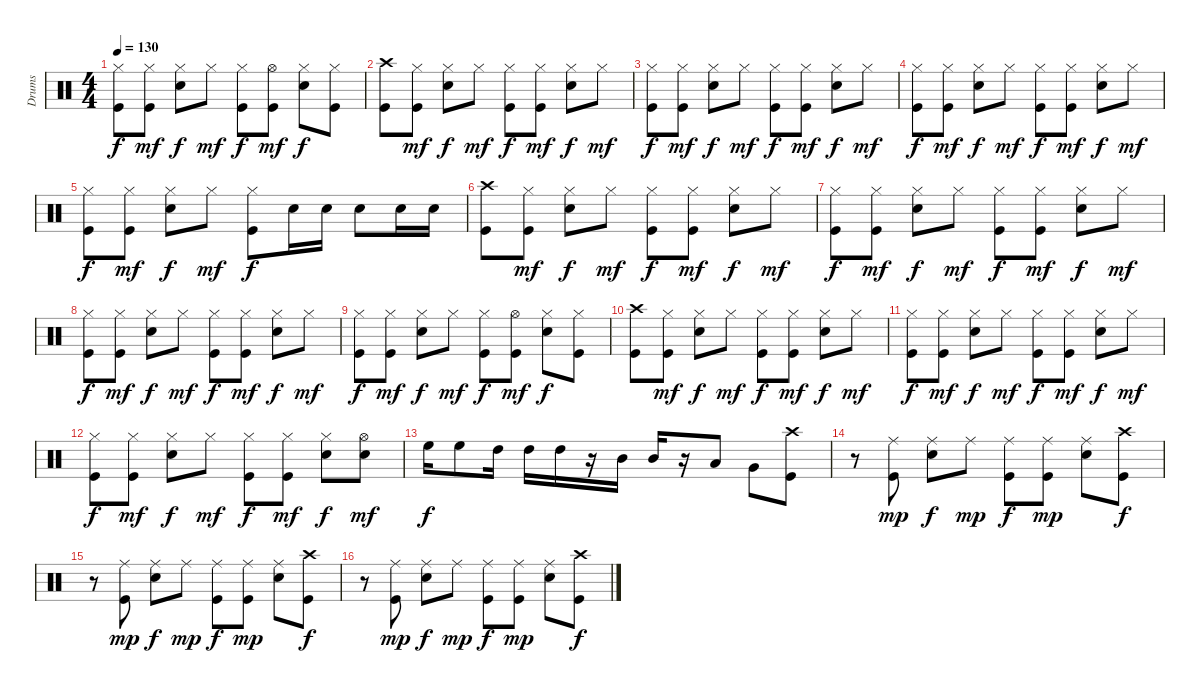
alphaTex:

\track ("Drums" "Drums") {instrument percussion}
\staff {score}
\articulation defaults
\ts (4 4)
\tempo 130
\clef neutral
\ks c
("Hi-Hat (closed)" "Kick (hit)").8{dy f} ("Hi-Hat (closed)" "Kick (hit)").8{dy mf} ("Hi-Hat (closed)" "Snare (hit) 2").8{dy f} "Hi-Hat (closed)".8{dy mf} ("Hi-Hat (closed)" "Kick (hit)").8{dy f} ("Hi-Hat (open)" "Kick (hit)").8{dy mf} ("Hi-Hat (closed)" "Snare (hit) 2").8{dy f} ("Hi-Hat (closed)" "Kick (hit)").8 |
("Kick (hit)" "Crash high (hit)").8 ("Hi-Hat (closed)" "Kick (hit)").8{dy mf} ("Hi-Hat (closed)" "Snare (hit) 2").8{dy f} "Hi-Hat (closed)".8{dy mf} ("Hi-Hat (closed)" "Kick (hit)").8{dy f} ("Hi-Hat (closed)" "Kick (hit)").8{dy mf} ("Hi-Hat (closed)" "Snare (hit) 2").8{dy f} "Hi-Hat (closed)".8{dy mf} |
("Hi-Hat (closed)" "Kick (hit)").8{dy f} ("Hi-Hat (closed)" "Kick (hit)").8{dy mf} ("Hi-Hat (closed)" "Snare (hit) 2").8{dy f} "Hi-Hat (closed)".8{dy mf} ("Hi-Hat (closed)" "Kick (hit)").8{dy f} ("Hi-Hat (closed)" "Kick (hit)").8{dy mf} ("Hi-Hat (closed)" "Snare (hit) 2").8{dy f} "Hi-Hat (closed)".8{dy mf} |
("Hi-Hat (closed)" "Kick (hit)").8{dy f} ("Hi-Hat (closed)" "Kick (hit)").8{dy mf} ("Hi-Hat (closed)" "Snare (hit) 2").8{dy f} "Hi-Hat (closed)".8{dy mf} ("Hi-Hat (closed)" "Kick (hit)").8{dy f} ("Hi-Hat (closed)" "Kick (hit)").8{dy mf} ("Hi-Hat (closed)" "Snare (hit) 2").8{dy f} "Hi-Hat (closed)".8{dy mf} |
("Hi-Hat (closed)" "Kick (hit)").8{dy f} ("Hi-Hat (closed)" "Kick (hit)").8{dy mf} ("Hi-Hat (closed)" "Snare (hit) 2").8{dy f} "Hi-Hat (closed)".8{dy mf} ("Hi-Hat (closed)" "Kick (hit)").8{dy f} "Snare (hit) 2".16 "Snare (hit) 2".16 "Snare (hit) 2".8 "Snare (hit) 2".16 "Snare (hit) 2".16 |
("Kick (hit)" "Crash high (hit)").8 ("Hi-Hat (closed)" "Kick (hit)").8{dy mf} ("Hi-Hat (closed)" "Snare (hit) 2").8{dy f} "Hi-Hat (closed)".8{dy mf} ("Hi-Hat (closed)" "Kick (hit)").8{dy f} ("Hi-Hat (closed)" "Kick (hit)").8{dy mf} ("Hi-Hat (closed)" "Snare (hit) 2").8{dy f} "Hi-Hat (closed)".8{dy mf} |
("Hi-Hat (closed)" "Kick (hit)").8{dy f} ("Hi-Hat (closed)" "Kick (hit)").8{dy mf} ("Hi-Hat (closed)" "Snare (hit) 2").8{dy f} "Hi-Hat (closed)".8{dy mf} ("Hi-Hat (closed)" "Kick (hit)").8{dy f} ("Hi-Hat (closed)" "Kick (hit)").8{dy mf} ("Hi-Hat (closed)" "Snare (hit) 2").8{dy f} "Hi-Hat (closed)".8{dy mf} |
("Hi-Hat (closed)" "Kick (hit)").8{dy f} ("Hi-Hat (closed)" "Kick (hit)").8{dy mf} ("Hi-Hat (closed)" "Snare (hit) 2").8{dy f} "Hi-Hat (closed)".8{dy mf} ("Hi-Hat (closed)" "Kick (hit)").8{dy f} ("Hi-Hat (closed)" "Kick (hit)").8{dy mf} ("Hi-Hat (closed)" "Snare (hit) 2").8{dy f} "Hi-Hat (closed)".8{dy mf} |
("Hi-Hat (closed)" "Kick (hit)").8{dy f} ("Hi-Hat (closed)" "Kick (hit)").8{dy mf} ("Hi-Hat (closed)" "Snare (hit) 2").8{dy f} "Hi-Hat (closed)".8{dy mf} ("Hi-Hat (closed)" "Kick (hit)").8{dy f} ("Hi-Hat (open)" "Kick (hit)").8{dy mf} ("Hi-Hat (closed)" "Snare (hit) 2").8{dy f} ("Hi-Hat (closed)" "Kick (hit)").8 |
("Kick (hit)" "Crash high (hit)").8 ("Hi-Hat (closed)" "Kick (hit)").8{dy mf} ("Hi-Hat (closed)" "Snare (hit) 2").8{dy f} "Hi-Hat (closed)".8{dy mf} ("Hi-Hat (closed)" "Kick (hit)").8{dy f} ("Hi-Hat (closed)" "Kick (hit)").8{dy mf} ("Hi-Hat (closed)" "Snare (hit) 2").8{dy f} "Hi-Hat (closed)".8{dy mf} |
("Hi-Hat (closed)" "Kick (hit)").8{dy f} ("Hi-Hat (closed)" "Kick (hit)").8{dy mf} ("Hi-Hat (closed)" "Snare (hit) 2").8{dy f} "Hi-Hat (closed)".8{dy mf} ("Hi-Hat (closed)" "Kick (hit)").8{dy f} ("Hi-Hat (closed)" "Kick (hit)").8{dy mf} ("Hi-Hat (closed)" "Snare (hit) 2").8{dy f} "Hi-Hat (closed)".8{dy mf} |
("Hi-Hat (closed)" "Kick (hit)").8{dy f} ("Hi-Hat (closed)" "Kick (hit)").8{dy mf} ("Hi-Hat (closed)" "Snare (hit) 2").8{dy f} "Hi-Hat (closed)".8{dy mf} ("Hi-Hat (closed)" "Kick (hit)").8{dy f} ("Hi-Hat (closed)" "Kick (hit)").8{dy mf} ("Hi-Hat (closed)" "Snare (hit) 2").8{dy f} ("Hi-Hat (open)" "Snare (hit) 2").8{dy mf} |
"High Floor Tom (hit)".16{dy f} "High Floor Tom (hit)".8 "High Tom (hit)".16 "High Tom (hit)".16 "High Tom (hit)".16 r.16 "Mid Tom (hit)".16 "Mid Tom (hit)".16 r.16 "Low Tom (hit)".8 "Very Low Tom (hit)".8 ("Crash high (hit)" "Kick (hit)").8 |
r.8 ("Ride (middle)" "Kick (hit)").8{dy mp} ("Ride (middle)" "Snare (hit) 2").8{dy f} "Ride (middle)".8{dy mp} ("Ride (middle)" "Kick (hit)").8{dy f} ("Ride (middle)" "Kick (hit)").8{dy mp} ("Ride (middle)" "Snare (hit) 2").8 ("Crash high (hit)" "Kick (hit)").8{dy f} |
r.8 ("Ride (middle)" "Kick (hit)").8{dy mp} ("Ride (middle)" "Snare (hit) 2").8{dy f} "Ride (middle)".8{dy mp} ("Ride (middle)" "Kick (hit)").8{dy f} ("Ride (middle)" "Kick (hit)").8{dy mp} ("Ride (middle)" "Snare (hit) 2").8 ("Crash high (hit)" "Kick (hit)").8{dy f} |
r.8 ("Ride (middle)" "Kick (hit)").8{dy mp} ("Ride (middle)" "Snare (hit) 2").8{dy f} "Ride (middle)".8{dy mp} ("Ride (middle)" "Kick (hit)").8{dy f} ("Ride (middle)" "Kick (hit)").8{dy mp} ("Ride (middle)" "Snare (hit) 2").8 ("Crash high (hit)" "Kick (hit)").8{dy f}
